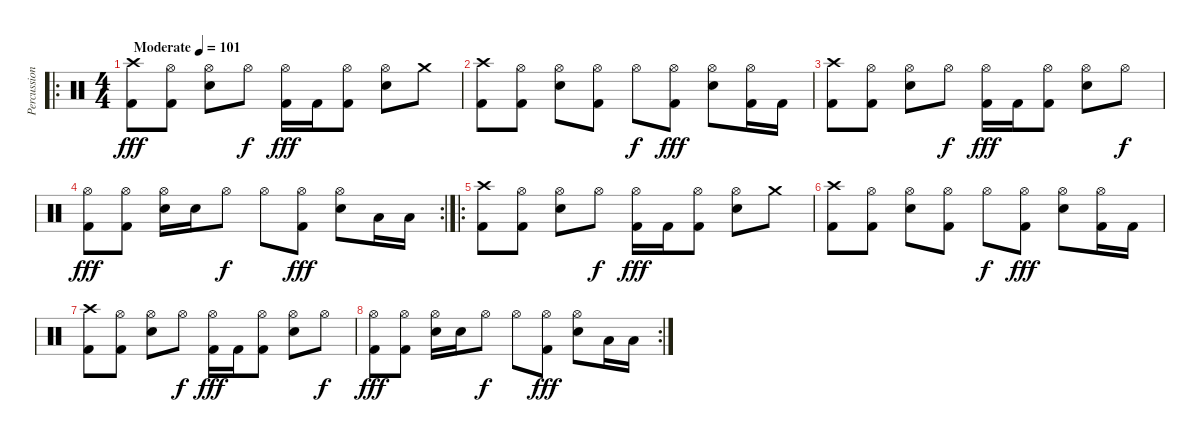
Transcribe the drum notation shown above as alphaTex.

\track ("Percussion" "Percussion") {instrument percussion}
\staff {score}
\articulation defaults
\ro
\ts (4 4)
\tempo (101 "Moderate")
\clef neutral
\ks c
("Crash high (hit)" "Kick (hit) 2").8{dy fff volume 9} ("Hi-Hat (open)" "Kick (hit) 2").8 ("Hi-Hat (open)" "Snare (hit) 2").8 "Hi-Hat (open)".8{dy f} ("Hi-Hat (open)" "Kick (hit) 2").16{dy fff} "Kick (hit) 2".16 ("Hi-Hat (open)" "Kick (hit) 2").8 ("Hi-Hat (open)" "Snare (hit) 2").8 "Crash medium (hit)".8 |
("Crash high (hit)" "Kick (hit) 2").8 ("Hi-Hat (open)" "Kick (hit) 2").8 ("Hi-Hat (open)" "Snare (hit) 2").8 ("Hi-Hat (open)" "Kick (hit) 2").8 "Hi-Hat (open)".8{dy f} ("Hi-Hat (open)" "Kick (hit) 2").8{dy fff} ("Hi-Hat (open)" "Snare (hit) 2").8 ("Hi-Hat (open)" "Kick (hit) 2").16 "Kick (hit) 2".16 |
("Crash high (hit)" "Kick (hit) 2").8 ("Hi-Hat (open)" "Kick (hit) 2").8 ("Hi-Hat (open)" "Snare (hit) 2").8 "Hi-Hat (open)".8{dy f} ("Hi-Hat (open)" "Kick (hit) 2").16{dy fff} "Kick (hit) 2".16 ("Hi-Hat (open)" "Kick (hit) 2").8 ("Hi-Hat (open)" "Snare (hit) 2").8 "Hi-Hat (open)".8{dy f} |
\rc 2
("Hi-Hat (open)" "Kick (hit) 2").8{dy fff} ("Hi-Hat (open)" "Kick (hit) 2").8 ("Hi-Hat (open)" "Snare (hit) 2").16 "Snare (hit) 2".16 "Hi-Hat (open)".8{dy f} "Hi-Hat (open)".8 ("Hi-Hat (open)" "Kick (hit) 2").8{dy fff} ("Hi-Hat (open)" "Snare (hit) 2").8 "Low Tom (hit)".16{volume 12} "Low Floor Tom (hit)".16 |
\ro
("Crash high (hit)" "Kick (hit) 2").8{volume 9} ("Hi-Hat (open)" "Kick (hit) 2").8 ("Hi-Hat (open)" "Snare (hit) 2").8 "Hi-Hat (open)".8{dy f} ("Hi-Hat (open)" "Kick (hit) 2").16{dy fff} "Kick (hit) 2".16 ("Hi-Hat (open)" "Kick (hit) 2").8 ("Hi-Hat (open)" "Snare (hit) 2").8 "Crash medium (hit)".8 |
("Crash high (hit)" "Kick (hit) 2").8 ("Hi-Hat (open)" "Kick (hit) 2").8 ("Hi-Hat (open)" "Snare (hit) 2").8 ("Hi-Hat (open)" "Kick (hit) 2").8 "Hi-Hat (open)".8{dy f} ("Hi-Hat (open)" "Kick (hit) 2").8{dy fff} ("Hi-Hat (open)" "Snare (hit) 2").8 ("Hi-Hat (open)" "Kick (hit) 2").16 "Kick (hit) 2".16 |
("Crash high (hit)" "Kick (hit) 2").8 ("Hi-Hat (open)" "Kick (hit) 2").8 ("Hi-Hat (open)" "Snare (hit) 2").8 "Hi-Hat (open)".8{dy f} ("Hi-Hat (open)" "Kick (hit) 2").16{dy fff} "Kick (hit) 2".16 ("Hi-Hat (open)" "Kick (hit) 2").8 ("Hi-Hat (open)" "Snare (hit) 2").8 "Hi-Hat (open)".8{dy f} |
\rc 2
("Hi-Hat (open)" "Kick (hit) 2").8{dy fff} ("Hi-Hat (open)" "Kick (hit) 2").8 ("Hi-Hat (open)" "Snare (hit) 2").16 "Snare (hit) 2".16 "Hi-Hat (open)".8{dy f} "Hi-Hat (open)".8 ("Hi-Hat (open)" "Kick (hit) 2").8{dy fff} ("Hi-Hat (open)" "Snare (hit) 2").8 "Low Tom (hit)".16{volume 11} "Low Floor Tom (hit)".16
